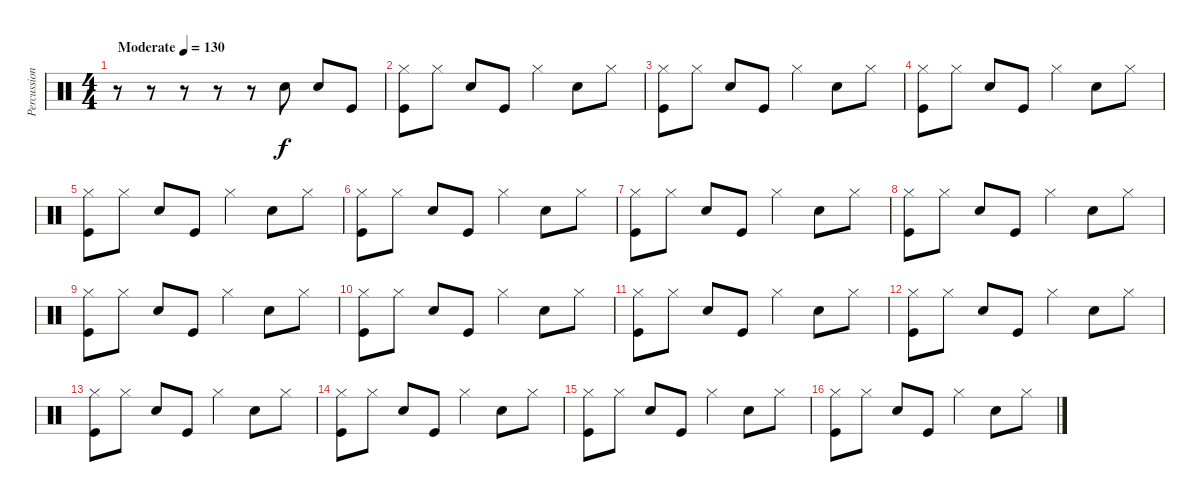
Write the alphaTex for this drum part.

\track ("Percussion" "Percussion") {instrument percussion}
\staff {score}
\articulation defaults
\ts (4 4)
\tempo (130 "Moderate")
\clef neutral
\ks c
r.8{dy f} r.8 r.8 r.8 r.8 "Snare (hit) 2".8 "Snare (hit) 2".8 "Kick (hit)".8 |
("Hi-Hat (closed)" "Kick (hit)").8 "Hi-Hat (closed)".8 "Snare (hit) 2".8 "Kick (hit)".8 "Hi-Hat (closed)".4 "Snare (hit) 2".8 "Hi-Hat (closed)".8 |
("Hi-Hat (closed)" "Kick (hit)").8 "Hi-Hat (closed)".8 "Snare (hit) 2".8 "Kick (hit)".8 "Hi-Hat (closed)".4 "Snare (hit) 2".8 "Hi-Hat (closed)".8 |
("Hi-Hat (closed)" "Kick (hit)").8 "Hi-Hat (closed)".8 "Snare (hit) 2".8 "Kick (hit)".8 "Hi-Hat (closed)".4 "Snare (hit) 2".8 "Hi-Hat (closed)".8 |
("Hi-Hat (closed)" "Kick (hit)").8 "Hi-Hat (closed)".8 "Snare (hit) 2".8 "Kick (hit)".8 "Hi-Hat (closed)".4 "Snare (hit) 2".8 "Hi-Hat (closed)".8 |
("Hi-Hat (closed)" "Kick (hit)").8 "Hi-Hat (closed)".8 "Snare (hit) 2".8 "Kick (hit)".8 "Hi-Hat (closed)".4 "Snare (hit) 2".8 "Hi-Hat (closed)".8 |
("Hi-Hat (closed)" "Kick (hit)").8 "Hi-Hat (closed)".8 "Snare (hit) 2".8 "Kick (hit)".8 "Hi-Hat (closed)".4 "Snare (hit) 2".8 "Hi-Hat (closed)".8 |
("Hi-Hat (closed)" "Kick (hit)").8 "Hi-Hat (closed)".8 "Snare (hit) 2".8 "Kick (hit)".8 "Hi-Hat (closed)".4 "Snare (hit) 2".8 "Hi-Hat (closed)".8 |
("Hi-Hat (closed)" "Kick (hit)").8 "Hi-Hat (closed)".8 "Snare (hit) 2".8 "Kick (hit)".8 "Hi-Hat (closed)".4 "Snare (hit) 2".8 "Hi-Hat (closed)".8 |
("Hi-Hat (closed)" "Kick (hit)").8 "Hi-Hat (closed)".8 "Snare (hit) 2".8 "Kick (hit)".8 "Hi-Hat (closed)".4 "Snare (hit) 2".8 "Hi-Hat (closed)".8 |
("Hi-Hat (closed)" "Kick (hit)").8 "Hi-Hat (closed)".8 "Snare (hit) 2".8 "Kick (hit)".8 "Hi-Hat (closed)".4 "Snare (hit) 2".8 "Hi-Hat (closed)".8 |
("Hi-Hat (closed)" "Kick (hit)").8 "Hi-Hat (closed)".8 "Snare (hit) 2".8 "Kick (hit)".8 "Hi-Hat (closed)".4 "Snare (hit) 2".8 "Hi-Hat (closed)".8 |
("Hi-Hat (closed)" "Kick (hit)").8 "Hi-Hat (closed)".8 "Snare (hit) 2".8 "Kick (hit)".8 "Hi-Hat (closed)".4 "Snare (hit) 2".8 "Hi-Hat (closed)".8 |
("Hi-Hat (closed)" "Kick (hit)").8 "Hi-Hat (closed)".8 "Snare (hit) 2".8 "Kick (hit)".8 "Hi-Hat (closed)".4 "Snare (hit) 2".8 "Hi-Hat (closed)".8 |
("Hi-Hat (closed)" "Kick (hit)").8 "Hi-Hat (closed)".8 "Snare (hit) 2".8 "Kick (hit)".8 "Hi-Hat (closed)".4 "Snare (hit) 2".8 "Hi-Hat (closed)".8 |
("Hi-Hat (closed)" "Kick (hit)").8 "Hi-Hat (closed)".8 "Snare (hit) 2".8 "Kick (hit)".8 "Hi-Hat (closed)".4 "Snare (hit) 2".8 "Hi-Hat (closed)".8
